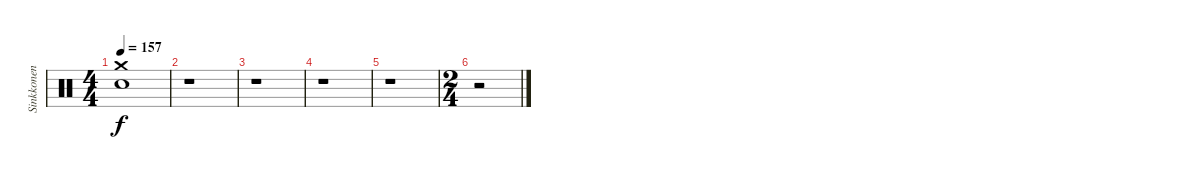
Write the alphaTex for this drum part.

\track ("Sinkkonen" "Sinkkonen") {instrument percussion}
\staff {score}
\articulation defaults
\ts (4 4)
\tempo 157
\clef neutral
\ks c
("Crash medium (hit)" "Snare (hit) 2").1{dy f} |
r.1 |
r.1 |
r.1 |
r.1 |
\ts (2 4)
r.2
